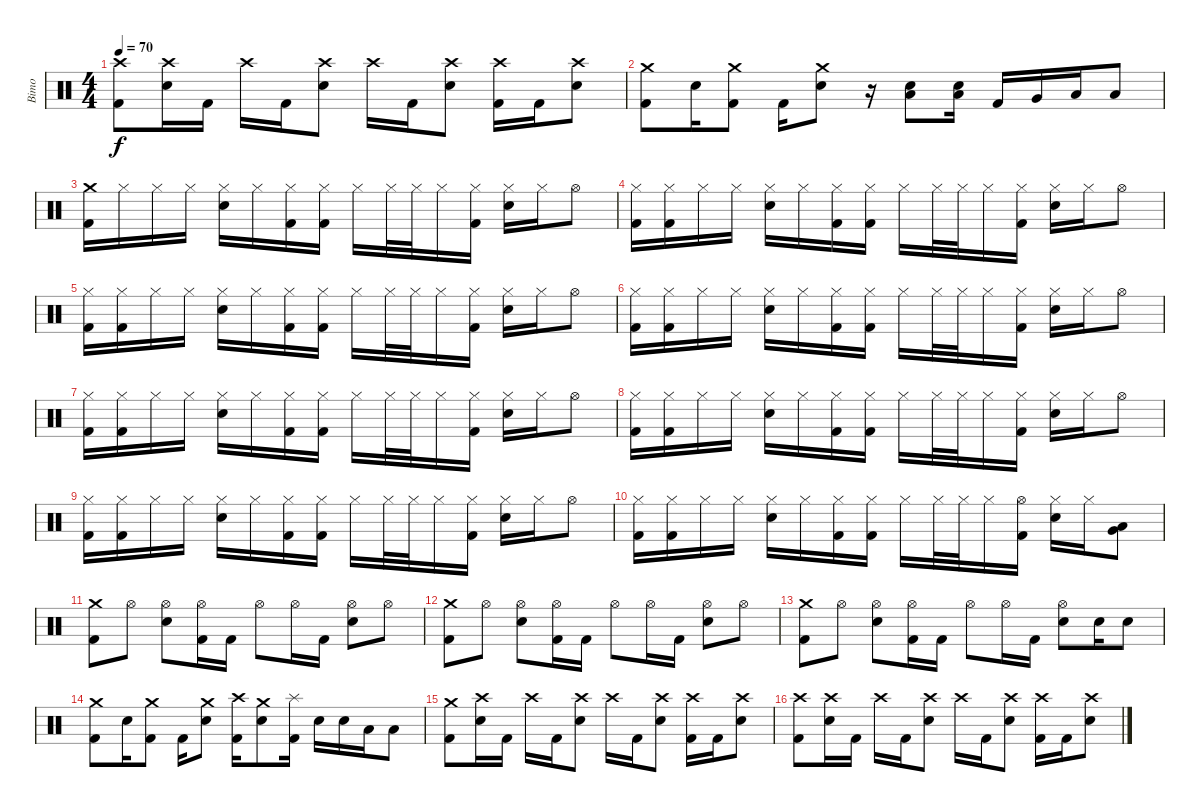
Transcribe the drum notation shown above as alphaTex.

\track ("Bimo" "Bimo") {instrument percussion}
\staff {score}
\articulation defaults
\ts (4 4)
\tempo 70
\clef neutral
\ks c
("Crash high (hit)" "Kick (hit) 2").8{dy f} ("Crash high (hit)" "Snare (hit) 2").16 "Kick (hit) 2".16 "Crash high (hit)".16 "Kick (hit) 2".16 ("Crash high (hit)" "Snare (hit) 2").8 "Crash high (hit)".16 "Kick (hit) 2".16 ("Crash high (hit)" "Snare (hit) 2").8 ("Crash high (hit)" "Kick (hit) 2").16 "Kick (hit) 2".16 ("Crash high (hit)" "Snare (hit) 2").8 |
("Crash medium (hit)" "Kick (hit) 2").8 "Snare (hit) 2".16 ("Crash medium (hit)" "Kick (hit) 2").8 "Kick (hit) 2".16 ("Crash medium (hit)" "Snare (hit) 2").8 r.16 ("Snare (hit) 2" "Low Floor Tom (hit)").8 ("Snare (hit) 2" "Low Floor Tom (hit)").16 "Kick (hit) 2".16 "Very Low Tom (hit)".16 "Low Floor Tom (hit)".16 "Low Floor Tom (hit)".8 |
("Crash medium (hit)" "Kick (hit) 2").16 "Hi-Hat (closed)".16 "Hi-Hat (closed)".16 "Hi-Hat (closed)".16 ("Hi-Hat (closed)" "Snare (hit) 2").16 "Hi-Hat (closed)".16 ("Hi-Hat (closed)" "Kick (hit) 2").16 ("Hi-Hat (closed)" "Kick (hit) 2").16 "Hi-Hat (closed)".16 "Hi-Hat (closed)".32 "Hi-Hat (closed)".32 "Hi-Hat (closed)".16 ("Hi-Hat (closed)" "Kick (hit) 2").16 ("Hi-Hat (closed)" "Snare (hit) 2").16 "Hi-Hat (closed)".16 "Hi-Hat (open)".8 |
("Hi-Hat (closed)" "Kick (hit) 2").16 ("Hi-Hat (closed)" "Kick (hit) 2").16 "Hi-Hat (closed)".16 "Hi-Hat (closed)".16 ("Hi-Hat (closed)" "Snare (hit) 2").16 "Hi-Hat (closed)".16 ("Hi-Hat (closed)" "Kick (hit) 2").16 ("Hi-Hat (closed)" "Kick (hit) 2").16 "Hi-Hat (closed)".16 "Hi-Hat (closed)".32 "Hi-Hat (closed)".32 "Hi-Hat (closed)".16 ("Hi-Hat (closed)" "Kick (hit) 2").16 ("Hi-Hat (closed)" "Snare (hit) 2").16 "Hi-Hat (closed)".16 "Hi-Hat (open)".8 |
("Hi-Hat (closed)" "Kick (hit) 2").16 ("Hi-Hat (closed)" "Kick (hit) 2").16 "Hi-Hat (closed)".16 "Hi-Hat (closed)".16 ("Hi-Hat (closed)" "Snare (hit) 2").16 "Hi-Hat (closed)".16 ("Hi-Hat (closed)" "Kick (hit) 2").16 ("Hi-Hat (closed)" "Kick (hit) 2").16 "Hi-Hat (closed)".16 "Hi-Hat (closed)".32 "Hi-Hat (closed)".32 "Hi-Hat (closed)".16 ("Hi-Hat (closed)" "Kick (hit) 2").16 ("Hi-Hat (closed)" "Snare (hit) 2").16 "Hi-Hat (closed)".16 "Hi-Hat (open)".8 |
("Hi-Hat (closed)" "Kick (hit) 2").16 ("Hi-Hat (closed)" "Kick (hit) 2").16 "Hi-Hat (closed)".16 "Hi-Hat (closed)".16 ("Hi-Hat (closed)" "Snare (hit) 2").16 "Hi-Hat (closed)".16 ("Hi-Hat (closed)" "Kick (hit) 2").16 ("Hi-Hat (closed)" "Kick (hit) 2").16 "Hi-Hat (closed)".16 "Hi-Hat (closed)".32 "Hi-Hat (closed)".32 "Hi-Hat (closed)".16 ("Hi-Hat (closed)" "Kick (hit) 2").16 ("Hi-Hat (closed)" "Snare (hit) 2").16 "Hi-Hat (closed)".16 "Hi-Hat (open)".8 |
("Hi-Hat (closed)" "Kick (hit) 2").16 ("Hi-Hat (closed)" "Kick (hit) 2").16 "Hi-Hat (closed)".16 "Hi-Hat (closed)".16 ("Hi-Hat (closed)" "Snare (hit) 2").16 "Hi-Hat (closed)".16 ("Hi-Hat (closed)" "Kick (hit) 2").16 ("Hi-Hat (closed)" "Kick (hit) 2").16 "Hi-Hat (closed)".16 "Hi-Hat (closed)".32 "Hi-Hat (closed)".32 "Hi-Hat (closed)".16 ("Hi-Hat (closed)" "Kick (hit) 2").16 ("Hi-Hat (closed)" "Snare (hit) 2").16 "Hi-Hat (closed)".16 "Hi-Hat (open)".8 |
("Hi-Hat (closed)" "Kick (hit) 2").16 ("Hi-Hat (closed)" "Kick (hit) 2").16 "Hi-Hat (closed)".16 "Hi-Hat (closed)".16 ("Hi-Hat (closed)" "Snare (hit) 2").16 "Hi-Hat (closed)".16 ("Hi-Hat (closed)" "Kick (hit) 2").16 ("Hi-Hat (closed)" "Kick (hit) 2").16 "Hi-Hat (closed)".16 "Hi-Hat (closed)".32 "Hi-Hat (closed)".32 "Hi-Hat (closed)".16 ("Hi-Hat (closed)" "Kick (hit) 2").16 ("Hi-Hat (closed)" "Snare (hit) 2").16 "Hi-Hat (closed)".16 "Hi-Hat (open)".8 |
("Hi-Hat (closed)" "Kick (hit) 2").16 ("Hi-Hat (closed)" "Kick (hit) 2").16 "Hi-Hat (closed)".16 "Hi-Hat (closed)".16 ("Hi-Hat (closed)" "Snare (hit) 2").16 "Hi-Hat (closed)".16 ("Hi-Hat (closed)" "Kick (hit) 2").16 ("Hi-Hat (closed)" "Kick (hit) 2").16 "Hi-Hat (closed)".16 "Hi-Hat (closed)".32 "Hi-Hat (closed)".32 "Hi-Hat (closed)".16 ("Hi-Hat (closed)" "Kick (hit) 2").16 ("Hi-Hat (closed)" "Snare (hit) 2").16 "Hi-Hat (closed)".16 "Hi-Hat (open)".8 |
("Hi-Hat (closed)" "Kick (hit) 2").16 ("Hi-Hat (closed)" "Kick (hit) 2").16 "Hi-Hat (closed)".16 "Hi-Hat (closed)".16 ("Hi-Hat (closed)" "Snare (hit) 2").16 "Hi-Hat (closed)".16 ("Hi-Hat (closed)" "Kick (hit) 2").16 ("Hi-Hat (closed)" "Kick (hit) 2").16 "Hi-Hat (closed)".16 "Hi-Hat (closed)".32 "Hi-Hat (closed)".32 "Hi-Hat (closed)".16 ("Hi-Hat (open)" "Kick (hit) 2").16 ("Hi-Hat (closed)" "Snare (hit) 2").16 "Hi-Hat (closed)".16 ("Low Floor Tom (hit)" "Very Low Tom (hit)").8 |
("Crash medium (hit)" "Kick (hit) 2").8 "Hi-Hat (open)".8 ("Hi-Hat (open)" "Snare (hit) 2").8 ("Hi-Hat (open)" "Kick (hit) 2").16 "Kick (hit) 2".16 "Hi-Hat (open)".8 "Hi-Hat (open)".16 "Kick (hit) 2".16 ("Hi-Hat (open)" "Snare (hit) 2").8 "Hi-Hat (open)".8 |
("Crash medium (hit)" "Kick (hit) 2").8 "Hi-Hat (open)".8 ("Hi-Hat (open)" "Snare (hit) 2").8 ("Hi-Hat (open)" "Kick (hit) 2").16 "Kick (hit) 2".16 "Hi-Hat (open)".8 "Hi-Hat (open)".16 "Kick (hit) 2".16 ("Hi-Hat (open)" "Snare (hit) 2").8 "Hi-Hat (open)".8 |
("Crash medium (hit)" "Kick (hit) 2").8 "Hi-Hat (open)".8 ("Hi-Hat (open)" "Snare (hit) 2").8 ("Hi-Hat (open)" "Kick (hit) 2").16 "Kick (hit) 2".16 "Hi-Hat (open)".8 "Hi-Hat (open)".16 "Kick (hit) 2".16 ("Hi-Hat (open)" "Snare (hit) 2").8 "Snare (hit) 2".16 "Snare (hit) 2".8 |
("Crash medium (hit)" "Kick (hit) 2").8 "Snare (hit) 2".16 ("Crash medium (hit)" "Kick (hit) 2").8 "Kick (hit) 2".16 ("Crash medium (hit)" "Snare (hit) 2").8 ("Crash high (hit)" "Kick (hit) 2").16 ("Crash medium (hit)" "Snare (hit) 2").8 ("Splash (hit)" "Kick (hit) 2").16 "Snare (hit) 2".16 "Snare (hit) 2".16 "Low Tom (hit)".16 "Low Tom (hit)".8 |
("Crash medium (hit)" "Kick (hit) 2").8 ("Crash high (hit)" "Snare (hit) 2").16 "Kick (hit) 2".16 "Crash high (hit)".16 "Kick (hit) 2".16 ("Crash high (hit)" "Snare (hit) 2").8 "Crash high (hit)".16 "Kick (hit) 2".16 ("Crash high (hit)" "Snare (hit) 2").8 ("Crash high (hit)" "Kick (hit) 2").16 "Kick (hit) 2".16 ("Crash high (hit)" "Snare (hit) 2").8 |
("Crash high (hit)" "Kick (hit) 2").8 ("Crash high (hit)" "Snare (hit) 2").16 "Kick (hit) 2".16 "Crash high (hit)".16 "Kick (hit) 2".16 ("Crash high (hit)" "Snare (hit) 2").8 "Crash high (hit)".16 "Kick (hit) 2".16 ("Crash high (hit)" "Snare (hit) 2").8 ("Crash high (hit)" "Kick (hit) 2").16 "Kick (hit) 2".16 ("Crash high (hit)" "Snare (hit) 2").8
